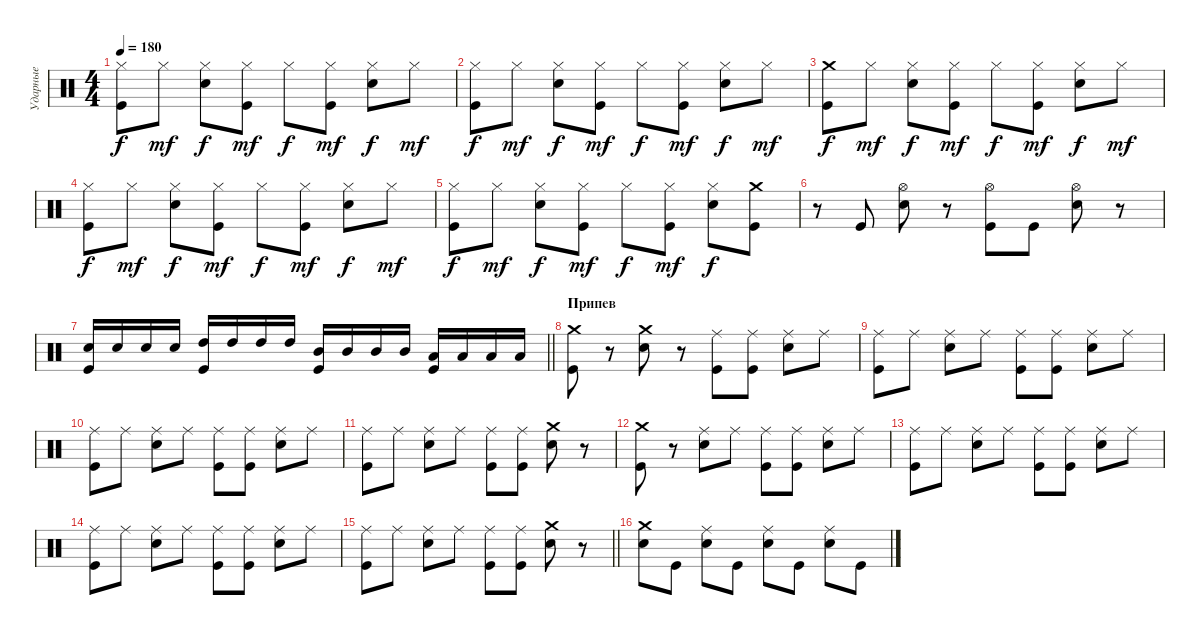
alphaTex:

\track ("Ударные" "Ударные") {instrument percussion}
\staff {score}
\articulation defaults
\ts (4 4)
\tempo 180
\clef neutral
\ks c
("Hi-Hat (closed)" "Kick (hit)").8{dy f} "Hi-Hat (closed)".8{dy mf} ("Hi-Hat (closed)" "Electric Snare (hit)").8{dy f} ("Hi-Hat (closed)" "Kick (hit)").8{dy mf} "Hi-Hat (closed)".8{dy f} ("Hi-Hat (closed)" "Kick (hit)").8{dy mf} ("Hi-Hat (closed)" "Electric Snare (hit)").8{dy f} "Hi-Hat (closed)".8{dy mf} |
("Hi-Hat (closed)" "Kick (hit)").8{dy f} "Hi-Hat (closed)".8{dy mf} ("Hi-Hat (closed)" "Electric Snare (hit)").8{dy f} ("Hi-Hat (closed)" "Kick (hit)").8{dy mf} "Hi-Hat (closed)".8{dy f} ("Hi-Hat (closed)" "Kick (hit)").8{dy mf} ("Hi-Hat (closed)" "Electric Snare (hit)").8{dy f} "Hi-Hat (closed)".8{dy mf} |
("Crash medium (hit)" "Kick (hit)").8{dy f} "Hi-Hat (closed)".8{dy mf} ("Hi-Hat (closed)" "Electric Snare (hit)").8{dy f} ("Hi-Hat (closed)" "Kick (hit)").8{dy mf} "Hi-Hat (closed)".8{dy f} ("Hi-Hat (closed)" "Kick (hit)").8{dy mf} ("Hi-Hat (closed)" "Electric Snare (hit)").8{dy f} "Hi-Hat (closed)".8{dy mf} |
("Hi-Hat (closed)" "Kick (hit)").8{dy f} "Hi-Hat (closed)".8{dy mf} ("Hi-Hat (closed)" "Electric Snare (hit)").8{dy f} ("Hi-Hat (closed)" "Kick (hit)").8{dy mf} "Hi-Hat (closed)".8{dy f} ("Hi-Hat (closed)" "Kick (hit)").8{dy mf} ("Hi-Hat (closed)" "Electric Snare (hit)").8{dy f} "Hi-Hat (closed)".8{dy mf} |
("Hi-Hat (closed)" "Kick (hit)").8{dy f} "Hi-Hat (closed)".8{dy mf} ("Hi-Hat (closed)" "Electric Snare (hit)").8{dy f} ("Hi-Hat (closed)" "Kick (hit)").8{dy mf} "Hi-Hat (closed)".8{dy f} ("Hi-Hat (closed)" "Kick (hit)").8{dy mf} ("Hi-Hat (closed)" "Electric Snare (hit)").8{dy f} ("Crash medium (hit)" "Kick (hit)").8 |
r.8 "Kick (hit)".8 ("Hi-Hat (open)" "Electric Snare (hit)").8 r.8 ("Hi-Hat (open)" "Kick (hit)").8 "Kick (hit)".8 ("Hi-Hat (open)" "Electric Snare (hit)").8 r.8 |
\barLineRight lightlight
("Electric Snare (hit)" "Kick (hit)").16 "Electric Snare (hit)".16 "Electric Snare (hit)".16 "Electric Snare (hit)".16 ("High Tom (hit)" "Kick (hit)").16 "High Tom (hit)".16 "High Tom (hit)".16 "High Tom (hit)".16 ("Mid Tom (hit)" "Kick (hit)").16 "Mid Tom (hit)".16 "Mid Tom (hit)".16 "Mid Tom (hit)".16 ("Low Tom (hit)" "Kick (hit)").16 "Low Tom (hit)".16 "Low Tom (hit)".16 "Low Tom (hit)".16 |
\section ("" "Припев")
("Crash medium (hit)" "Kick (hit)").8 r.8 ("Crash medium (hit)" "Electric Snare (hit)").8 r.8 ("Ride (middle)" "Kick (hit)").8 ("Ride (middle)" "Kick (hit)").8 ("Ride (middle)" "Electric Snare (hit)").8 "Ride (middle)".8 |
("Ride (middle)" "Kick (hit)").8 "Ride (middle)".8 ("Ride (middle)" "Electric Snare (hit)").8 "Ride (middle)".8 ("Ride (middle)" "Kick (hit)").8 ("Ride (middle)" "Kick (hit)").8 ("Ride (middle)" "Electric Snare (hit)").8 "Ride (middle)".8 |
("Ride (middle)" "Kick (hit)").8 "Ride (middle)".8 ("Ride (middle)" "Electric Snare (hit)").8 "Ride (middle)".8 ("Ride (middle)" "Kick (hit)").8 ("Ride (middle)" "Kick (hit)").8 ("Ride (middle)" "Electric Snare (hit)").8 "Ride (middle)".8 |
("Ride (middle)" "Kick (hit)").8 "Ride (middle)".8 ("Ride (middle)" "Electric Snare (hit)").8 "Ride (middle)".8 ("Ride (middle)" "Kick (hit)").8 ("Ride (middle)" "Kick (hit)").8 ("Crash medium (hit)" "Electric Snare (hit)").8 r.8 |
("Crash medium (hit)" "Kick (hit)").8 r.8 ("Ride (middle)" "Electric Snare (hit)").8 "Ride (middle)".8 ("Ride (middle)" "Kick (hit)").8 ("Ride (middle)" "Kick (hit)").8 ("Ride (middle)" "Electric Snare (hit)").8 "Ride (middle)".8 |
("Ride (middle)" "Kick (hit)").8 "Ride (middle)".8 ("Ride (middle)" "Electric Snare (hit)").8 "Ride (middle)".8 ("Ride (middle)" "Kick (hit)").8 ("Ride (middle)" "Kick (hit)").8 ("Ride (middle)" "Electric Snare (hit)").8 "Ride (middle)".8 |
("Ride (middle)" "Kick (hit)").8 "Ride (middle)".8 ("Ride (middle)" "Electric Snare (hit)").8 "Ride (middle)".8 ("Ride (middle)" "Kick (hit)").8 ("Ride (middle)" "Kick (hit)").8 ("Ride (middle)" "Electric Snare (hit)").8 "Ride (middle)".8 |
\barLineRight lightlight
("Ride (middle)" "Kick (hit)").8 "Ride (middle)".8 ("Ride (middle)" "Electric Snare (hit)").8 "Ride (middle)".8 ("Ride (middle)" "Kick (hit)").8 ("Ride (middle)" "Kick (hit)").8 ("Crash medium (hit)" "Electric Snare (hit)").8 r.8 |
\section ("" " ")
("Crash medium (hit)" "Electric Snare (hit)").8 "Kick (hit)".8 ("Ride (middle)" "Electric Snare (hit)").8 "Kick (hit)".8 ("Ride (middle)" "Electric Snare (hit)").8 "Kick (hit)".8 ("Ride (middle)" "Electric Snare (hit)").8 "Kick (hit)".8
